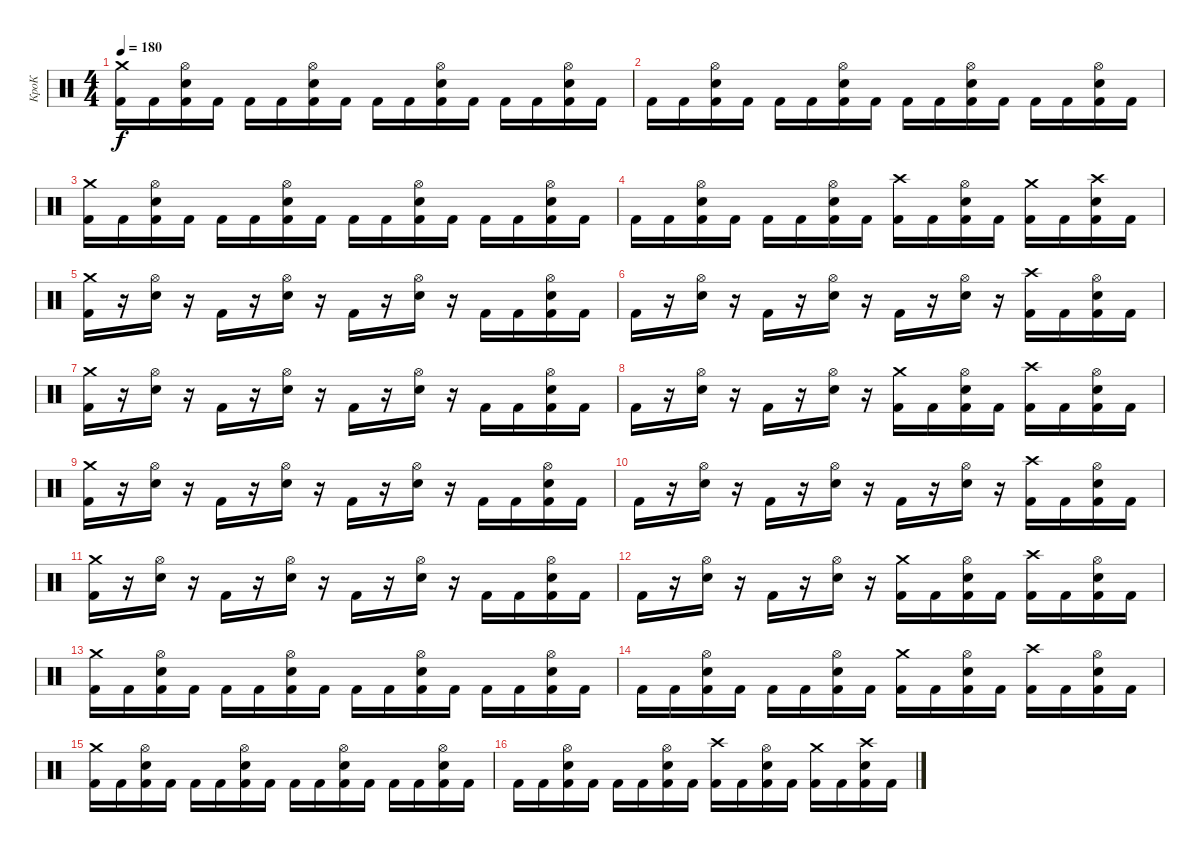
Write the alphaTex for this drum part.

\track ("КроК" "КроК") {instrument percussion}
\staff {score}
\articulation defaults
\ts (4 4)
\tempo 180
\clef neutral
\ks c
("Kick (hit) 2" "Crash medium (hit)").16{dy f} "Kick (hit) 2".16 ("Kick (hit) 2" "Electric Snare (hit)" "Hi-Hat (open)").16 "Kick (hit) 2".16 "Kick (hit) 2".16 "Kick (hit) 2".16 ("Kick (hit) 2" "Electric Snare (hit)" "Hi-Hat (open)").16 "Kick (hit) 2".16 "Kick (hit) 2".16 "Kick (hit) 2".16 ("Kick (hit) 2" "Electric Snare (hit)" "Hi-Hat (open)").16 "Kick (hit) 2".16 "Kick (hit) 2".16 "Kick (hit) 2".16 ("Kick (hit) 2" "Electric Snare (hit)" "Hi-Hat (open)").16 "Kick (hit) 2".16 |
"Kick (hit) 2".16 "Kick (hit) 2".16 ("Kick (hit) 2" "Electric Snare (hit)" "Hi-Hat (open)").16 "Kick (hit) 2".16 "Kick (hit) 2".16 "Kick (hit) 2".16 ("Kick (hit) 2" "Electric Snare (hit)" "Hi-Hat (open)").16 "Kick (hit) 2".16 "Kick (hit) 2".16 "Kick (hit) 2".16 ("Kick (hit) 2" "Electric Snare (hit)" "Hi-Hat (open)").16 "Kick (hit) 2".16 "Kick (hit) 2".16 "Kick (hit) 2".16 ("Kick (hit) 2" "Electric Snare (hit)" "Hi-Hat (open)").16 "Kick (hit) 2".16 |
("Kick (hit) 2" "Crash medium (hit)").16 "Kick (hit) 2".16 ("Kick (hit) 2" "Electric Snare (hit)" "Hi-Hat (open)").16 "Kick (hit) 2".16 "Kick (hit) 2".16 "Kick (hit) 2".16 ("Kick (hit) 2" "Electric Snare (hit)" "Hi-Hat (open)").16 "Kick (hit) 2".16 "Kick (hit) 2".16 "Kick (hit) 2".16 ("Kick (hit) 2" "Electric Snare (hit)" "Hi-Hat (open)").16 "Kick (hit) 2".16 "Kick (hit) 2".16 "Kick (hit) 2".16 ("Kick (hit) 2" "Electric Snare (hit)" "Hi-Hat (open)").16 "Kick (hit) 2".16 |
"Kick (hit) 2".16 "Kick (hit) 2".16 ("Kick (hit) 2" "Electric Snare (hit)" "Hi-Hat (open)").16 "Kick (hit) 2".16 "Kick (hit) 2".16 "Kick (hit) 2".16 ("Kick (hit) 2" "Electric Snare (hit)" "Hi-Hat (open)").16 "Kick (hit) 2".16 ("Kick (hit) 2" "Crash high (hit)").16 "Kick (hit) 2".16 ("Kick (hit) 2" "Electric Snare (hit)" "Hi-Hat (open)").16 "Kick (hit) 2".16 ("Kick (hit) 2" "Crash medium (hit)").16 "Kick (hit) 2".16 ("Kick (hit) 2" "Electric Snare (hit)" "Crash high (hit)").16 "Kick (hit) 2".16 |
("Kick (hit) 2" "Crash medium (hit)").16 r.16 ("Electric Snare (hit)" "Hi-Hat (open)").16 r.16 "Kick (hit) 2".16 r.16 ("Electric Snare (hit)" "Hi-Hat (open)").16 r.16 "Kick (hit) 2".16 r.16 ("Electric Snare (hit)" "Hi-Hat (open)").16 r.16 "Kick (hit) 2".16 "Kick (hit) 2".16 ("Kick (hit) 2" "Electric Snare (hit)" "Hi-Hat (open)").16 "Kick (hit) 2".16 |
"Kick (hit) 2".16 r.16 ("Electric Snare (hit)" "Hi-Hat (open)").16 r.16 "Kick (hit) 2".16 r.16 ("Electric Snare (hit)" "Hi-Hat (open)").16 r.16 "Kick (hit) 2".16 r.16 ("Electric Snare (hit)" "Hi-Hat (open)").16 r.16 ("Kick (hit) 2" "Crash high (hit)").16 "Kick (hit) 2".16 ("Kick (hit) 2" "Electric Snare (hit)" "Hi-Hat (open)").16 "Kick (hit) 2".16 |
("Kick (hit) 2" "Crash medium (hit)").16 r.16 ("Electric Snare (hit)" "Hi-Hat (open)").16 r.16 "Kick (hit) 2".16 r.16 ("Electric Snare (hit)" "Hi-Hat (open)").16 r.16 "Kick (hit) 2".16 r.16 ("Electric Snare (hit)" "Hi-Hat (open)").16 r.16 "Kick (hit) 2".16 "Kick (hit) 2".16 ("Kick (hit) 2" "Electric Snare (hit)" "Hi-Hat (open)").16 "Kick (hit) 2".16 |
"Kick (hit) 2".16 r.16 ("Electric Snare (hit)" "Hi-Hat (open)").16 r.16 "Kick (hit) 2".16 r.16 ("Electric Snare (hit)" "Hi-Hat (open)").16 r.16 ("Kick (hit) 2" "Crash medium (hit)").16 "Kick (hit) 2".16 ("Kick (hit) 2" "Electric Snare (hit)" "Hi-Hat (open)").16 "Kick (hit) 2".16 ("Kick (hit) 2" "Crash high (hit)").16 "Kick (hit) 2".16 ("Kick (hit) 2" "Electric Snare (hit)" "Hi-Hat (open)").16 "Kick (hit) 2".16 |
("Kick (hit) 2" "Crash medium (hit)").16 r.16 ("Electric Snare (hit)" "Hi-Hat (open)").16 r.16 "Kick (hit) 2".16 r.16 ("Electric Snare (hit)" "Hi-Hat (open)").16 r.16 "Kick (hit) 2".16 r.16 ("Electric Snare (hit)" "Hi-Hat (open)").16 r.16 "Kick (hit) 2".16 "Kick (hit) 2".16 ("Kick (hit) 2" "Electric Snare (hit)" "Hi-Hat (open)").16 "Kick (hit) 2".16 |
"Kick (hit) 2".16 r.16 ("Electric Snare (hit)" "Hi-Hat (open)").16 r.16 "Kick (hit) 2".16 r.16 ("Electric Snare (hit)" "Hi-Hat (open)").16 r.16 "Kick (hit) 2".16 r.16 ("Electric Snare (hit)" "Hi-Hat (open)").16 r.16 ("Kick (hit) 2" "Crash high (hit)").16 "Kick (hit) 2".16 ("Kick (hit) 2" "Electric Snare (hit)" "Hi-Hat (open)").16 "Kick (hit) 2".16 |
("Kick (hit) 2" "Crash medium (hit)").16 r.16 ("Electric Snare (hit)" "Hi-Hat (open)").16 r.16 "Kick (hit) 2".16 r.16 ("Electric Snare (hit)" "Hi-Hat (open)").16 r.16 "Kick (hit) 2".16 r.16 ("Electric Snare (hit)" "Hi-Hat (open)").16 r.16 "Kick (hit) 2".16 "Kick (hit) 2".16 ("Kick (hit) 2" "Electric Snare (hit)" "Hi-Hat (open)").16 "Kick (hit) 2".16 |
"Kick (hit) 2".16 r.16 ("Electric Snare (hit)" "Hi-Hat (open)").16 r.16 "Kick (hit) 2".16 r.16 ("Electric Snare (hit)" "Hi-Hat (open)").16 r.16 ("Kick (hit) 2" "Crash medium (hit)").16 "Kick (hit) 2".16 ("Kick (hit) 2" "Electric Snare (hit)" "Hi-Hat (open)").16 "Kick (hit) 2".16 ("Kick (hit) 2" "Crash high (hit)").16 "Kick (hit) 2".16 ("Kick (hit) 2" "Electric Snare (hit)" "Hi-Hat (open)").16 "Kick (hit) 2".16 |
("Kick (hit) 2" "Crash medium (hit)").16 "Kick (hit) 2".16 ("Kick (hit) 2" "Electric Snare (hit)" "Hi-Hat (open)").16 "Kick (hit) 2".16 "Kick (hit) 2".16 "Kick (hit) 2".16 ("Kick (hit) 2" "Electric Snare (hit)" "Hi-Hat (open)").16 "Kick (hit) 2".16 "Kick (hit) 2".16 "Kick (hit) 2".16 ("Kick (hit) 2" "Electric Snare (hit)" "Hi-Hat (open)").16 "Kick (hit) 2".16 "Kick (hit) 2".16 "Kick (hit) 2".16 ("Kick (hit) 2" "Electric Snare (hit)" "Hi-Hat (open)").16 "Kick (hit) 2".16 |
"Kick (hit) 2".16 "Kick (hit) 2".16 ("Kick (hit) 2" "Electric Snare (hit)" "Hi-Hat (open)").16 "Kick (hit) 2".16 "Kick (hit) 2".16 "Kick (hit) 2".16 ("Kick (hit) 2" "Electric Snare (hit)" "Hi-Hat (open)").16 "Kick (hit) 2".16 ("Kick (hit) 2" "Crash medium (hit)").16 "Kick (hit) 2".16 ("Kick (hit) 2" "Electric Snare (hit)" "Hi-Hat (open)").16 "Kick (hit) 2".16 ("Kick (hit) 2" "Crash high (hit)").16 "Kick (hit) 2".16 ("Kick (hit) 2" "Electric Snare (hit)" "Hi-Hat (open)").16 "Kick (hit) 2".16 |
("Kick (hit) 2" "Crash medium (hit)").16 "Kick (hit) 2".16 ("Kick (hit) 2" "Electric Snare (hit)" "Hi-Hat (open)").16 "Kick (hit) 2".16 "Kick (hit) 2".16 "Kick (hit) 2".16 ("Kick (hit) 2" "Electric Snare (hit)" "Hi-Hat (open)").16 "Kick (hit) 2".16 "Kick (hit) 2".16 "Kick (hit) 2".16 ("Kick (hit) 2" "Electric Snare (hit)" "Hi-Hat (open)").16 "Kick (hit) 2".16 "Kick (hit) 2".16 "Kick (hit) 2".16 ("Kick (hit) 2" "Electric Snare (hit)" "Hi-Hat (open)").16 "Kick (hit) 2".16 |
"Kick (hit) 2".16 "Kick (hit) 2".16 ("Kick (hit) 2" "Electric Snare (hit)" "Hi-Hat (open)").16 "Kick (hit) 2".16 "Kick (hit) 2".16 "Kick (hit) 2".16 ("Kick (hit) 2" "Electric Snare (hit)" "Hi-Hat (open)").16 "Kick (hit) 2".16 ("Kick (hit) 2" "Crash high (hit)").16 "Kick (hit) 2".16 ("Kick (hit) 2" "Electric Snare (hit)" "Hi-Hat (open)").16 "Kick (hit) 2".16 ("Kick (hit) 2" "Crash medium (hit)").16 "Kick (hit) 2".16 ("Kick (hit) 2" "Electric Snare (hit)" "Crash high (hit)").16 "Kick (hit) 2".16
